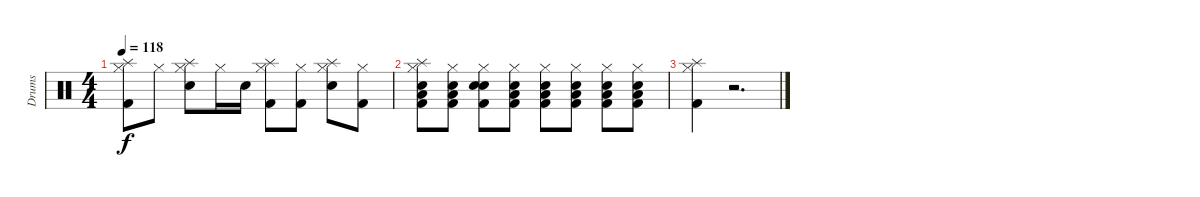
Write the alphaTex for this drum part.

\track ("Drums" "Drums") {instrument percussion}
\staff {score}
\articulation defaults
\ts (4 4)
\tempo 118
\clef neutral
\ks c
("Splash (hit)" "Hi-Hat (closed)" "Kick (hit) 2").8{dy f} "Hi-Hat (closed)".8 ("Splash (hit)" "Hi-Hat (closed)" "Snare (hit) 2").8 "Hi-Hat (closed)".16 "Snare (hit) 2".16 ("Splash (hit)" "Hi-Hat (closed)" "Kick (hit) 2").8 ("Hi-Hat (closed)" "Kick (hit) 2").8 ("Splash (hit)" "Hi-Hat (closed)" "Snare (hit) 2").8 ("Hi-Hat (closed)" "Kick (hit) 2").8 |
("Snare (hit) 2" "Splash (hit)" "Hi-Hat (closed)" "Low Floor Tom (hit)" "Kick (hit) 2").8 ("Snare (hit) 2" "Hi-Hat (closed)" "Low Floor Tom (hit)" "Kick (hit) 2").8 ("Snare (hit) 2" "Hi-Hat (closed)" "Snare (hit)" "Kick (hit) 2").8 ("Snare (hit) 2" "Hi-Hat (closed)" "Low Floor Tom (hit)" "Kick (hit) 2").8 ("Snare (hit) 2" "Hi-Hat (closed)" "Low Floor Tom (hit)" "Kick (hit) 2").8 ("Snare (hit) 2" "Hi-Hat (closed)" "Low Floor Tom (hit)" "Kick (hit) 2").8 ("Snare (hit) 2" "Hi-Hat (closed)" "Low Floor Tom (hit)" "Kick (hit) 2").8 ("Snare (hit) 2" "Hi-Hat (closed)" "Low Floor Tom (hit)" "Kick (hit) 2").8 |
("Splash (hit)" "Hi-Hat (closed)" "Kick (hit) 2").4 r.2{d}
